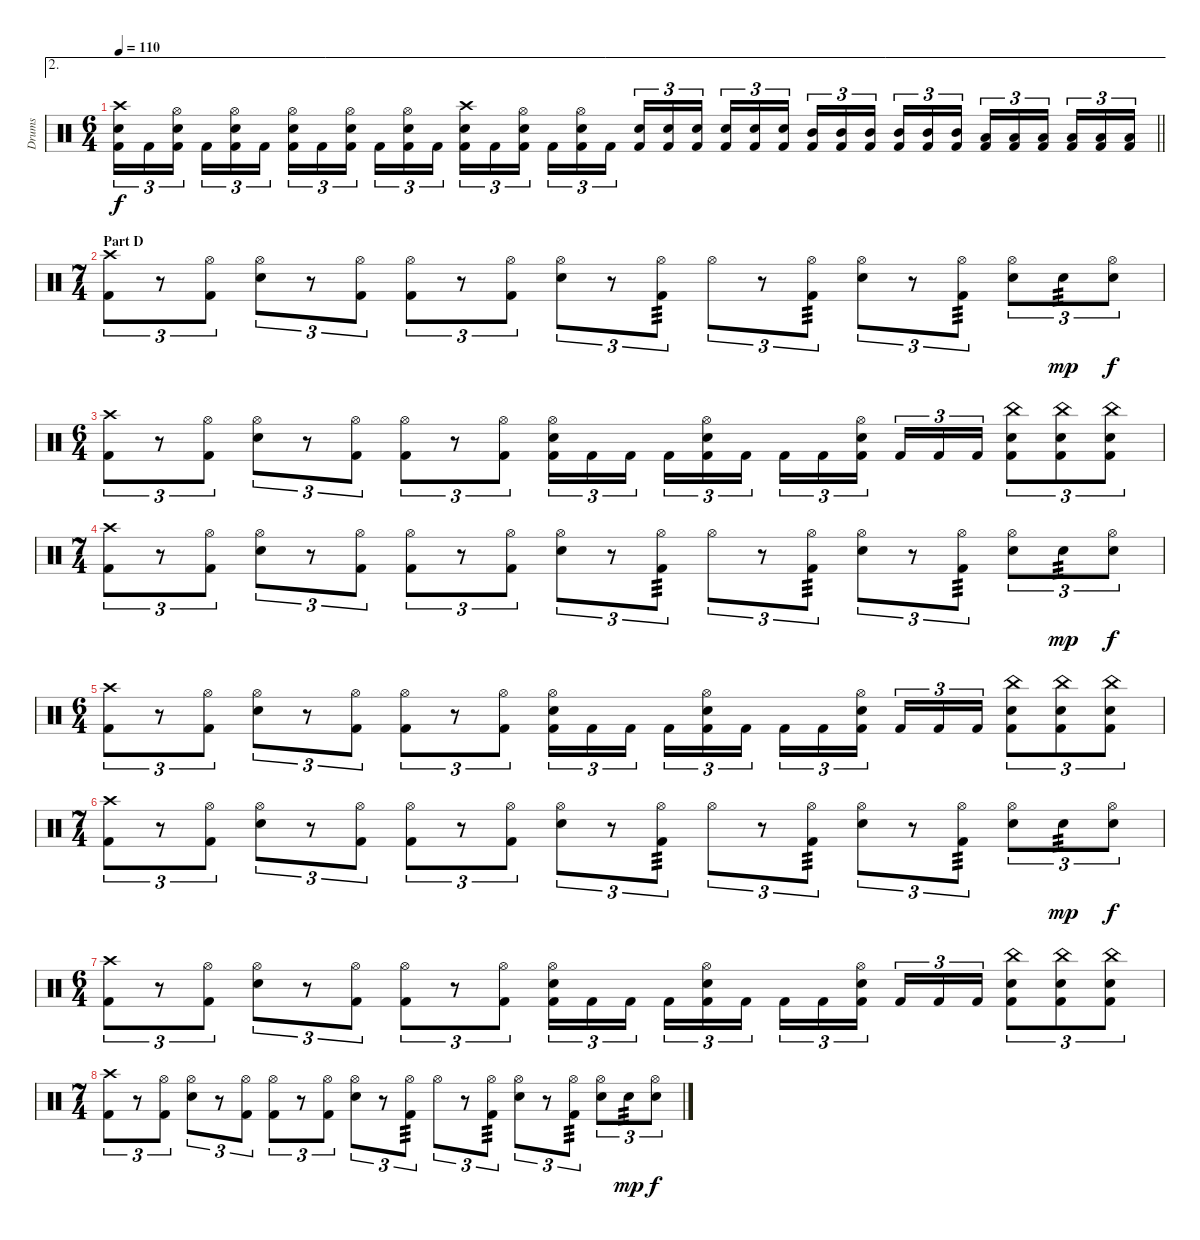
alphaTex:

\track ("Drums" "Drums") {instrument percussion}
\staff {score}
\articulation defaults
\ae 2
\ts (6 4)
\tempo 110
\clef neutral
\barLineRight lightlight
\ks c
("Snare (hit) 2" "Kick (hit) 2" "Crash high (hit)").16{tu (3 2) dy f} "Kick (hit) 2".16{tu (3 2)} ("Kick (hit) 2" "Snare (hit) 2" "Hi-Hat (open)").16{tu (3 2) beam splitsecondary} "Kick (hit) 2".16{tu (3 2)} ("Kick (hit) 2" "Snare (hit) 2" "Hi-Hat (open)").16{tu (3 2)} "Kick (hit) 2".16{tu (3 2) beam splitsecondary} ("Kick (hit) 2" "Snare (hit) 2" "Hi-Hat (open)").16{tu (3 2)} "Kick (hit) 2".16{tu (3 2)} ("Kick (hit) 2" "Snare (hit) 2" "Hi-Hat (open)").16{tu (3 2) beam splitsecondary} "Kick (hit) 2".16{tu (3 2)} ("Kick (hit) 2" "Snare (hit) 2" "Hi-Hat (open)").16{tu (3 2)} "Kick (hit) 2".16{tu (3 2) beam splitsecondary} ("Snare (hit) 2" "Kick (hit) 2" "Crash high (hit)").16{tu (3 2)} "Kick (hit) 2".16{tu (3 2)} ("Kick (hit) 2" "Snare (hit) 2" "Hi-Hat (open)").16{tu (3 2) beam splitsecondary} "Kick (hit) 2".16{tu (3 2)} ("Kick (hit) 2" "Snare (hit) 2" "Hi-Hat (open)").16{tu (3 2)} "Kick (hit) 2".16{tu (3 2)} ("Snare (hit) 2" "Kick (hit) 2").16{tu (3 2)} ("Kick (hit) 2" "Snare (hit) 2").16{tu (3 2)} ("Kick (hit) 2" "Snare (hit) 2").16{tu (3 2) beam splitsecondary} ("Kick (hit) 2" "Snare (hit) 2").16{tu (3 2)} ("Kick (hit) 2" "Snare (hit) 2").16{tu (3 2)} ("Kick (hit) 2" "Snare (hit) 2").16{tu (3 2) beam splitsecondary} ("Kick (hit) 2" "Mid Tom (hit)").16{tu (3 2)} ("Kick (hit) 2" "Mid Tom (hit)").16{tu (3 2)} ("Kick (hit) 2" "Mid Tom (hit)").16{tu (3 2) beam splitsecondary} ("Kick (hit) 2" "Mid Tom (hit)").16{tu (3 2)} ("Kick (hit) 2" "Mid Tom (hit)").16{tu (3 2)} ("Kick (hit) 2" "Mid Tom (hit)").16{tu (3 2) beam splitsecondary} ("Kick (hit) 2" "Low Tom (hit)").16{tu (3 2)} ("Kick (hit) 2" "Low Tom (hit)").16{tu (3 2)} ("Kick (hit) 2" "Low Tom (hit)").16{tu (3 2) beam splitsecondary} ("Kick (hit) 2" "Low Tom (hit)").16{tu (3 2)} ("Kick (hit) 2" "Low Tom (hit)").16{tu (3 2)} ("Kick (hit) 2" "Low Tom (hit)").16{tu (3 2)} |
\ts (7 4)
\section ("" "Part D")
("Kick (hit) 2" "Crash high (hit)").8{tu (3 2)} r.8{tu (3 2)} ("Hi-Hat (open)" "Kick (hit) 2").8{tu (3 2)} ("Hi-Hat (open)" "Snare (hit) 2").8{tu (3 2)} r.8{tu (3 2)} ("Hi-Hat (open)" "Kick (hit) 2").8{tu (3 2)} ("Hi-Hat (open)" "Kick (hit) 2").8{tu (3 2)} r.8{tu (3 2)} ("Hi-Hat (open)" "Kick (hit) 2").8{tu (3 2)} ("Hi-Hat (open)" "Snare (hit) 2").8{tu (3 2)} r.8{tu (3 2)} ("Kick (hit) 2" "Hi-Hat (open)").8{tu (3 2) tp 3} "Hi-Hat (open)".8{tu (3 2)} r.8{tu (3 2)} ("Kick (hit) 2" "Hi-Hat (open)").8{tu (3 2) tp 3} ("Hi-Hat (open)" "Snare (hit) 2").8{tu (3 2)} r.8{tu (3 2)} ("Kick (hit) 2" "Hi-Hat (open)").8{tu (3 2) tp 3} ("Snare (hit) 2" "Hi-Hat (open)").8{tu (3 2)} "Snare (hit) 2".8{tu (3 2) tp 3 dy mp} ("Snare (hit) 2" "Hi-Hat (open)").8{tu (3 2) dy f} |
\ts (6 4)
("Kick (hit) 2" "Crash high (hit)").8{tu (3 2)} r.8{tu (3 2)} ("Hi-Hat (open)" "Kick (hit) 2").8{tu (3 2)} ("Hi-Hat (open)" "Snare (hit) 2").8{tu (3 2)} r.8{tu (3 2)} ("Hi-Hat (open)" "Kick (hit) 2").8{tu (3 2)} ("Hi-Hat (open)" "Kick (hit) 2").8{tu (3 2)} r.8{tu (3 2)} ("Hi-Hat (open)" "Kick (hit) 2").8{tu (3 2)} ("Hi-Hat (open)" "Snare (hit) 2" "Kick (hit) 2").16{tu (3 2)} "Kick (hit) 2".16{tu (3 2)} "Kick (hit) 2".16{tu (3 2) beam splitsecondary} "Kick (hit) 2".16{tu (3 2)} ("Kick (hit) 2" "Snare (hit) 2" "Hi-Hat (open)").16{tu (3 2)} "Kick (hit) 2".16{tu (3 2) beam splitsecondary} "Kick (hit) 2".16{tu (3 2)} "Kick (hit) 2".16{tu (3 2)} ("Kick (hit) 2" "Snare (hit) 2" "Hi-Hat (open)").16{tu (3 2) beam splitsecondary} "Kick (hit) 2".16{tu (3 2)} "Kick (hit) 2".16{tu (3 2)} "Kick (hit) 2".16{tu (3 2)} ("Kick (hit) 2" "Snare (hit) 2" "China (hit)").8{tu (3 2)} ("Kick (hit) 2" "Snare (hit) 2" "China (hit)").8{tu (3 2)} ("Snare (hit) 2" "Kick (hit) 2" "China (hit)").8{tu (3 2)} |
\ts (7 4)
("Kick (hit) 2" "Crash high (hit)").8{tu (3 2)} r.8{tu (3 2)} ("Hi-Hat (open)" "Kick (hit) 2").8{tu (3 2)} ("Hi-Hat (open)" "Snare (hit) 2").8{tu (3 2)} r.8{tu (3 2)} ("Hi-Hat (open)" "Kick (hit) 2").8{tu (3 2)} ("Hi-Hat (open)" "Kick (hit) 2").8{tu (3 2)} r.8{tu (3 2)} ("Hi-Hat (open)" "Kick (hit) 2").8{tu (3 2)} ("Hi-Hat (open)" "Snare (hit) 2").8{tu (3 2)} r.8{tu (3 2)} ("Kick (hit) 2" "Hi-Hat (open)").8{tu (3 2) tp 3} "Hi-Hat (open)".8{tu (3 2)} r.8{tu (3 2)} ("Kick (hit) 2" "Hi-Hat (open)").8{tu (3 2) tp 3} ("Hi-Hat (open)" "Snare (hit) 2").8{tu (3 2)} r.8{tu (3 2)} ("Kick (hit) 2" "Hi-Hat (open)").8{tu (3 2) tp 3} ("Snare (hit) 2" "Hi-Hat (open)").8{tu (3 2)} "Snare (hit) 2".8{tu (3 2) tp 3 dy mp} ("Snare (hit) 2" "Hi-Hat (open)").8{tu (3 2) dy f} |
\ts (6 4)
("Kick (hit) 2" "Crash high (hit)").8{tu (3 2)} r.8{tu (3 2)} ("Hi-Hat (open)" "Kick (hit) 2").8{tu (3 2)} ("Hi-Hat (open)" "Snare (hit) 2").8{tu (3 2)} r.8{tu (3 2)} ("Hi-Hat (open)" "Kick (hit) 2").8{tu (3 2)} ("Hi-Hat (open)" "Kick (hit) 2").8{tu (3 2)} r.8{tu (3 2)} ("Hi-Hat (open)" "Kick (hit) 2").8{tu (3 2)} ("Hi-Hat (open)" "Snare (hit) 2" "Kick (hit) 2").16{tu (3 2)} "Kick (hit) 2".16{tu (3 2)} "Kick (hit) 2".16{tu (3 2) beam splitsecondary} "Kick (hit) 2".16{tu (3 2)} ("Kick (hit) 2" "Snare (hit) 2" "Hi-Hat (open)").16{tu (3 2)} "Kick (hit) 2".16{tu (3 2) beam splitsecondary} "Kick (hit) 2".16{tu (3 2)} "Kick (hit) 2".16{tu (3 2)} ("Kick (hit) 2" "Snare (hit) 2" "Hi-Hat (open)").16{tu (3 2) beam splitsecondary} "Kick (hit) 2".16{tu (3 2)} "Kick (hit) 2".16{tu (3 2)} "Kick (hit) 2".16{tu (3 2)} ("Kick (hit) 2" "Snare (hit) 2" "China (hit)").8{tu (3 2)} ("Kick (hit) 2" "Snare (hit) 2" "China (hit)").8{tu (3 2)} ("Snare (hit) 2" "Kick (hit) 2" "China (hit)").8{tu (3 2)} |
\ts (7 4)
("Kick (hit) 2" "Crash high (hit)").8{tu (3 2)} r.8{tu (3 2)} ("Hi-Hat (open)" "Kick (hit) 2").8{tu (3 2)} ("Hi-Hat (open)" "Snare (hit) 2").8{tu (3 2)} r.8{tu (3 2)} ("Hi-Hat (open)" "Kick (hit) 2").8{tu (3 2)} ("Hi-Hat (open)" "Kick (hit) 2").8{tu (3 2)} r.8{tu (3 2)} ("Hi-Hat (open)" "Kick (hit) 2").8{tu (3 2)} ("Hi-Hat (open)" "Snare (hit) 2").8{tu (3 2)} r.8{tu (3 2)} ("Kick (hit) 2" "Hi-Hat (open)").8{tu (3 2) tp 3} "Hi-Hat (open)".8{tu (3 2)} r.8{tu (3 2)} ("Kick (hit) 2" "Hi-Hat (open)").8{tu (3 2) tp 3} ("Hi-Hat (open)" "Snare (hit) 2").8{tu (3 2)} r.8{tu (3 2)} ("Kick (hit) 2" "Hi-Hat (open)").8{tu (3 2) tp 3} ("Snare (hit) 2" "Hi-Hat (open)").8{tu (3 2)} "Snare (hit) 2".8{tu (3 2) tp 3 dy mp} ("Snare (hit) 2" "Hi-Hat (open)").8{tu (3 2) dy f} |
\ts (6 4)
("Kick (hit) 2" "Crash high (hit)").8{tu (3 2)} r.8{tu (3 2)} ("Hi-Hat (open)" "Kick (hit) 2").8{tu (3 2)} ("Hi-Hat (open)" "Snare (hit) 2").8{tu (3 2)} r.8{tu (3 2)} ("Hi-Hat (open)" "Kick (hit) 2").8{tu (3 2)} ("Hi-Hat (open)" "Kick (hit) 2").8{tu (3 2)} r.8{tu (3 2)} ("Hi-Hat (open)" "Kick (hit) 2").8{tu (3 2)} ("Hi-Hat (open)" "Snare (hit) 2" "Kick (hit) 2").16{tu (3 2)} "Kick (hit) 2".16{tu (3 2)} "Kick (hit) 2".16{tu (3 2) beam splitsecondary} "Kick (hit) 2".16{tu (3 2)} ("Kick (hit) 2" "Snare (hit) 2" "Hi-Hat (open)").16{tu (3 2)} "Kick (hit) 2".16{tu (3 2) beam splitsecondary} "Kick (hit) 2".16{tu (3 2)} "Kick (hit) 2".16{tu (3 2)} ("Kick (hit) 2" "Snare (hit) 2" "Hi-Hat (open)").16{tu (3 2) beam splitsecondary} "Kick (hit) 2".16{tu (3 2)} "Kick (hit) 2".16{tu (3 2)} "Kick (hit) 2".16{tu (3 2)} ("Kick (hit) 2" "Snare (hit) 2" "China (hit)").8{tu (3 2)} ("Kick (hit) 2" "Snare (hit) 2" "China (hit)").8{tu (3 2)} ("Snare (hit) 2" "Kick (hit) 2" "China (hit)").8{tu (3 2)} |
\ts (7 4)
("Kick (hit) 2" "Crash high (hit)").8{tu (3 2)} r.8{tu (3 2)} ("Hi-Hat (open)" "Kick (hit) 2").8{tu (3 2)} ("Hi-Hat (open)" "Snare (hit) 2").8{tu (3 2)} r.8{tu (3 2)} ("Hi-Hat (open)" "Kick (hit) 2").8{tu (3 2)} ("Hi-Hat (open)" "Kick (hit) 2").8{tu (3 2)} r.8{tu (3 2)} ("Hi-Hat (open)" "Kick (hit) 2").8{tu (3 2)} ("Hi-Hat (open)" "Snare (hit) 2").8{tu (3 2)} r.8{tu (3 2)} ("Kick (hit) 2" "Hi-Hat (open)").8{tu (3 2) tp 3} "Hi-Hat (open)".8{tu (3 2)} r.8{tu (3 2)} ("Kick (hit) 2" "Hi-Hat (open)").8{tu (3 2) tp 3} ("Hi-Hat (open)" "Snare (hit) 2").8{tu (3 2)} r.8{tu (3 2)} ("Kick (hit) 2" "Hi-Hat (open)").8{tu (3 2) tp 3} ("Snare (hit) 2" "Hi-Hat (open)").8{tu (3 2)} "Snare (hit) 2".8{tu (3 2) tp 3 dy mp} ("Snare (hit) 2" "Hi-Hat (open)").8{tu (3 2) dy f}
